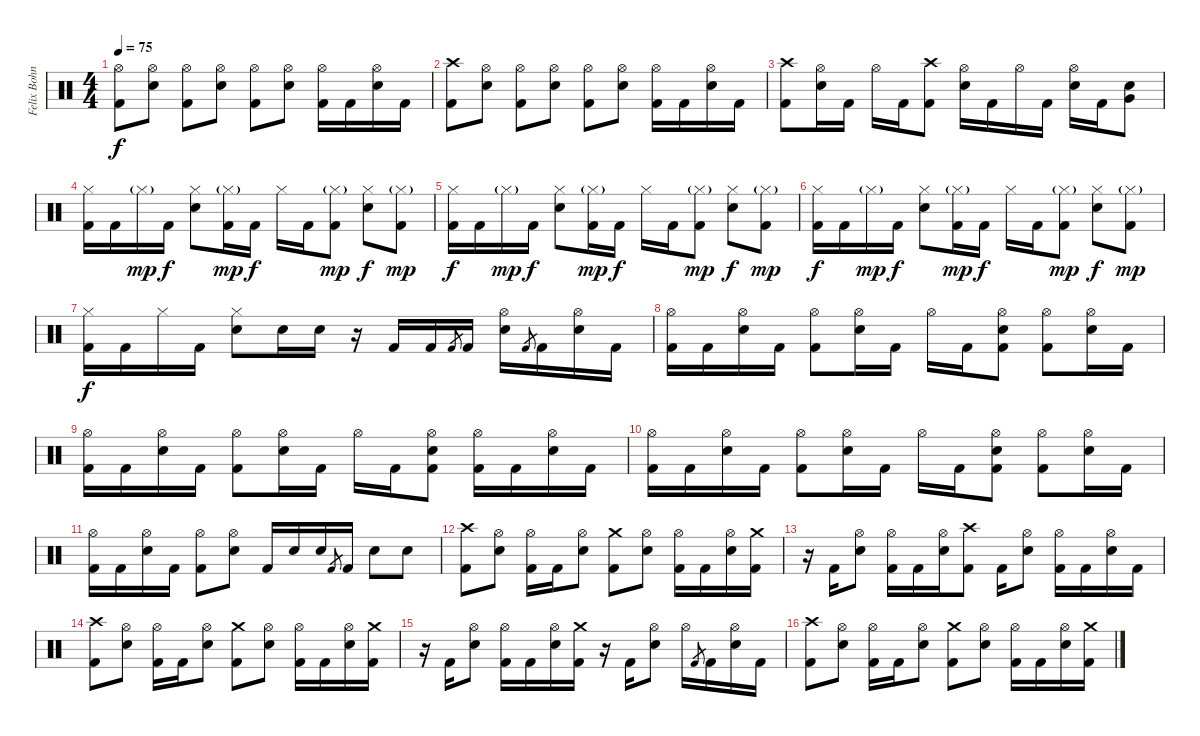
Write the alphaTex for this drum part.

\track ("Felix Bohnke" "Felix Bohn") {instrument percussion}
\staff {score}
\articulation defaults
\ts (4 4)
\tempo 75
\clef neutral
\ks c
("Hi-Hat (open)" "Kick (hit) 2").8{dy f} ("Hi-Hat (open)" "Snare (hit) 2").8 ("Hi-Hat (open)" "Kick (hit) 2").8 ("Hi-Hat (open)" "Snare (hit) 2").8 ("Hi-Hat (open)" "Kick (hit) 2").8 ("Hi-Hat (open)" "Snare (hit) 2").8 ("Hi-Hat (open)" "Kick (hit) 2").16 "Kick (hit) 2".16 ("Hi-Hat (open)" "Snare (hit) 2").16 "Kick (hit) 2".16 |
("Crash high (hit)" "Kick (hit) 2").8 ("Hi-Hat (open)" "Snare (hit) 2").8 ("Hi-Hat (open)" "Kick (hit) 2").8 ("Hi-Hat (open)" "Snare (hit) 2").8 ("Hi-Hat (open)" "Kick (hit) 2").8 ("Hi-Hat (open)" "Snare (hit) 2").8 ("Hi-Hat (open)" "Kick (hit) 2").16 "Kick (hit) 2".16 ("Hi-Hat (open)" "Snare (hit) 2").16 "Kick (hit) 2".16 |
("Crash high (hit)" "Kick (hit) 2").8 ("Hi-Hat (open)" "Snare (hit) 2").16 "Kick (hit) 2".16 "Hi-Hat (open)".16 "Kick (hit) 2".16 ("Crash high (hit)" "Kick (hit) 2").8 ("Hi-Hat (open)" "Snare (hit) 2").16 "Kick (hit) 2".16 "Hi-Hat (open)".16 "Kick (hit) 2".16 ("Hi-Hat (open)" "Snare (hit) 2").16 "Kick (hit) 2".16 ("Snare (hit) 2" "Very Low Tom (hit)").8 |
("Hi-Hat (closed)" "Kick (hit) 2").16 "Kick (hit) 2".16 "Hi-Hat (closed)"{g}.16{dy mp} "Kick (hit) 2".16{dy f} ("Hi-Hat (closed)" "Snare (hit) 2").8 ("Hi-Hat (closed)"{g} "Kick (hit) 2").16{dy mp} "Kick (hit) 2".16{dy f} "Hi-Hat (closed)".16 "Kick (hit) 2".16 ("Hi-Hat (closed)"{g} "Kick (hit) 2").8{dy mp} ("Hi-Hat (closed)" "Snare (hit) 2").8{dy f} ("Hi-Hat (closed)"{g} "Kick (hit) 2").8{dy mp} |
("Hi-Hat (closed)" "Kick (hit) 2").16{dy f} "Kick (hit) 2".16 "Hi-Hat (closed)"{g}.16{dy mp} "Kick (hit) 2".16{dy f} ("Hi-Hat (closed)" "Snare (hit) 2").8 ("Hi-Hat (closed)"{g} "Kick (hit) 2").16{dy mp} "Kick (hit) 2".16{dy f} "Hi-Hat (closed)".16 "Kick (hit) 2".16 ("Hi-Hat (closed)"{g} "Kick (hit) 2").8{dy mp} ("Hi-Hat (closed)" "Snare (hit) 2").8{dy f} ("Hi-Hat (closed)"{g} "Kick (hit) 2").8{dy mp} |
("Hi-Hat (closed)" "Kick (hit) 2").16{dy f} "Kick (hit) 2".16 "Hi-Hat (closed)"{g}.16{dy mp} "Kick (hit) 2".16{dy f} ("Hi-Hat (closed)" "Snare (hit) 2").8 ("Hi-Hat (closed)"{g} "Kick (hit) 2").16{dy mp} "Kick (hit) 2".16{dy f} "Hi-Hat (closed)".16 "Kick (hit) 2".16 ("Hi-Hat (closed)"{g} "Kick (hit) 2").8{dy mp} ("Hi-Hat (closed)" "Snare (hit) 2").8{dy f} ("Hi-Hat (closed)"{g} "Kick (hit) 2").8{dy mp} |
("Hi-Hat (closed)" "Kick (hit) 2").16{dy f} "Kick (hit) 2".16 "Hi-Hat (closed)".16 "Kick (hit) 2".16 ("Hi-Hat (closed)" "Snare (hit) 2").8 "Snare (hit) 2".16 "Snare (hit) 2".16 r.16 "Kick (hit) 2".16 "Kick (hit) 2".16 "Kick (hit) 2".8{gr} "Kick (hit) 2".16 ("Hi-Hat (open)" "Snare (hit) 2").16 "Kick (hit) 2".8{gr} "Kick (hit) 2".16 ("Hi-Hat (open)" "Snare (hit) 2").16 "Kick (hit) 2".16 |
("Hi-Hat (open)" "Kick (hit) 2").16 "Kick (hit) 2".16 ("Hi-Hat (open)" "Snare (hit) 2").16 "Kick (hit) 2".16 ("Hi-Hat (open)" "Kick (hit) 2").8 ("Hi-Hat (open)" "Snare (hit) 2").16 "Kick (hit) 2".16 "Hi-Hat (open)".16 "Kick (hit) 2".16 ("Hi-Hat (open)" "Snare (hit) 2" "Kick (hit) 2").8 ("Hi-Hat (open)" "Kick (hit) 2").8 ("Hi-Hat (open)" "Snare (hit) 2").16 "Kick (hit) 2".16 |
("Hi-Hat (open)" "Kick (hit) 2").16 "Kick (hit) 2".16 ("Hi-Hat (open)" "Snare (hit) 2").16 "Kick (hit) 2".16 ("Hi-Hat (open)" "Kick (hit) 2").8 ("Hi-Hat (open)" "Snare (hit) 2").16 "Kick (hit) 2".16 "Hi-Hat (open)".16 "Kick (hit) 2".16 ("Hi-Hat (open)" "Snare (hit) 2" "Kick (hit) 2").8 ("Hi-Hat (open)" "Kick (hit) 2").16 "Kick (hit) 2".16 ("Hi-Hat (open)" "Snare (hit) 2").16 "Kick (hit) 2".16 |
("Hi-Hat (open)" "Kick (hit) 2").16 "Kick (hit) 2".16 ("Hi-Hat (open)" "Snare (hit) 2").16 "Kick (hit) 2".16 ("Hi-Hat (open)" "Kick (hit) 2").8 ("Hi-Hat (open)" "Snare (hit) 2").16 "Kick (hit) 2".16 "Hi-Hat (open)".16 "Kick (hit) 2".16 ("Hi-Hat (open)" "Snare (hit) 2" "Kick (hit) 2").8 ("Hi-Hat (open)" "Kick (hit) 2").8 ("Hi-Hat (open)" "Snare (hit) 2").16 "Kick (hit) 2".16 |
("Hi-Hat (open)" "Kick (hit) 2").16 "Kick (hit) 2".16 ("Hi-Hat (open)" "Snare (hit) 2").16 "Kick (hit) 2".16 ("Hi-Hat (open)" "Kick (hit) 2").8 ("Hi-Hat (open)" "Snare (hit) 2").8 "Kick (hit) 2".16 "Snare (hit) 2".16 "Snare (hit) 2".16 "Kick (hit) 2".8{gr} "Kick (hit) 2".16 "Snare (hit) 2".8 "Snare (hit) 2".8 |
("Crash high (hit)" "Kick (hit) 2").8 ("Hi-Hat (open)" "Snare (hit) 2").8 ("Hi-Hat (open)" "Kick (hit) 2").16 "Kick (hit) 2".16 ("Hi-Hat (open)" "Snare (hit) 2").8 ("Crash medium (hit)" "Kick (hit) 2").8 ("Hi-Hat (open)" "Snare (hit) 2").8 ("Hi-Hat (open)" "Kick (hit) 2").16 "Kick (hit) 2".16 ("Hi-Hat (open)" "Snare (hit) 2").16 ("Crash medium (hit)" "Kick (hit) 2").16 |
r.16 "Kick (hit) 2".16 ("Hi-Hat (open)" "Snare (hit) 2").8 ("Hi-Hat (open)" "Kick (hit) 2").16 "Kick (hit) 2".16 ("Hi-Hat (open)" "Snare (hit) 2").16 ("Crash high (hit)" "Kick (hit) 2").8 "Kick (hit) 2".16 ("Hi-Hat (open)" "Snare (hit) 2").8 ("Hi-Hat (open)" "Kick (hit) 2").16 "Kick (hit) 2".16 ("Hi-Hat (open)" "Snare (hit) 2").16 "Kick (hit) 2".16 |
("Crash high (hit)" "Kick (hit) 2").8 ("Hi-Hat (open)" "Snare (hit) 2").8 ("Hi-Hat (open)" "Kick (hit) 2").16 "Kick (hit) 2".16 ("Hi-Hat (open)" "Snare (hit) 2").8 ("Crash medium (hit)" "Kick (hit) 2").8 ("Hi-Hat (open)" "Snare (hit) 2").8 ("Hi-Hat (open)" "Kick (hit) 2").16 "Kick (hit) 2".16 ("Hi-Hat (open)" "Snare (hit) 2").16 ("Crash medium (hit)" "Kick (hit) 2").16 |
r.16 "Kick (hit) 2".16 ("Hi-Hat (open)" "Snare (hit) 2").8 ("Hi-Hat (open)" "Kick (hit) 2").16 "Kick (hit) 2".16 ("Hi-Hat (open)" "Snare (hit) 2").16 ("Crash medium (hit)" "Kick (hit) 2").16 r.16 "Kick (hit) 2".16 ("Hi-Hat (open)" "Snare (hit) 2").8 "Hi-Hat (open)".16 "Kick (hit) 2".8{gr} "Kick (hit) 2".16 ("Hi-Hat (open)" "Snare (hit) 2").16 "Kick (hit) 2".16 |
("Crash high (hit)" "Kick (hit) 2").8 ("Hi-Hat (open)" "Snare (hit) 2").8 ("Hi-Hat (open)" "Kick (hit) 2").16 "Kick (hit) 2".16 ("Hi-Hat (open)" "Snare (hit) 2").8 ("Crash medium (hit)" "Kick (hit) 2").8 ("Hi-Hat (open)" "Snare (hit) 2").8 ("Hi-Hat (open)" "Kick (hit) 2").16 "Kick (hit) 2".16 ("Hi-Hat (open)" "Snare (hit) 2").16 ("Crash medium (hit)" "Kick (hit) 2").16
